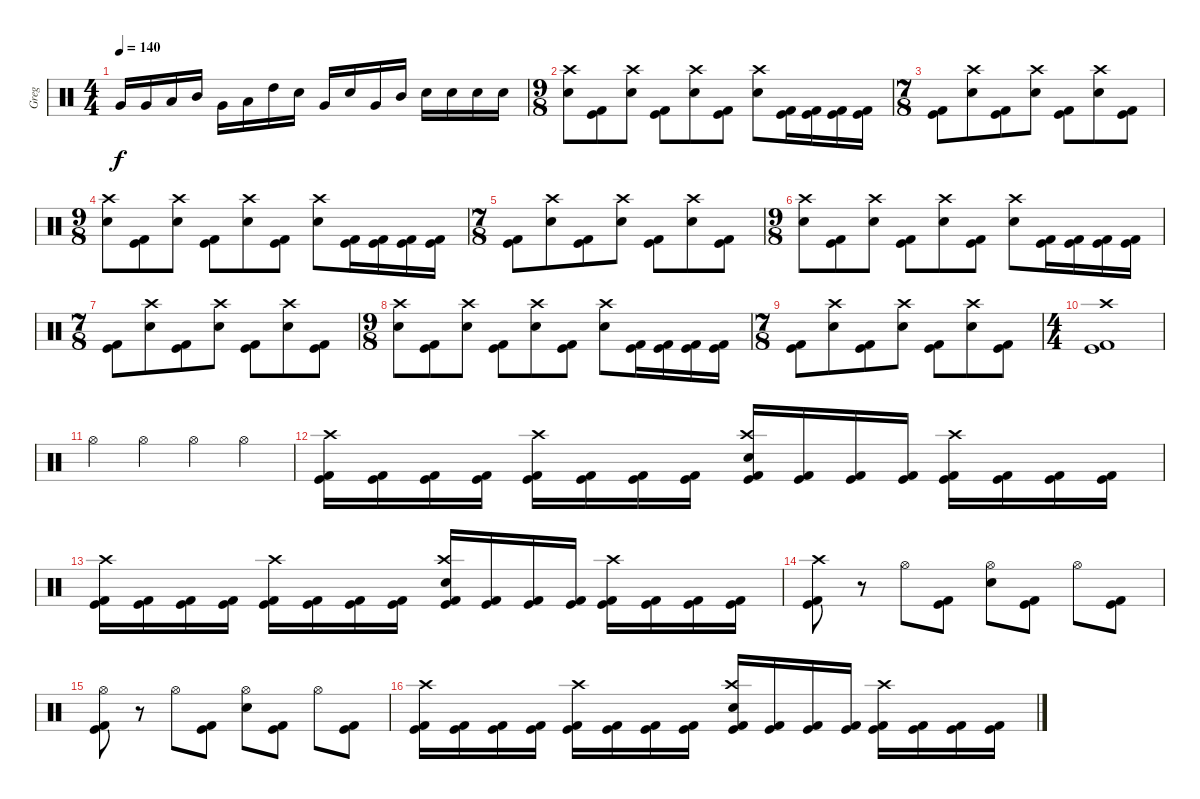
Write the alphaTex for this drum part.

\track ("Greg" "Greg") {instrument percussion}
\staff {score}
\articulation defaults
\ts (4 4)
\tempo 140
\clef neutral
\ks c "Very Low Tom (hit)".16{dy f} "Very Low Tom (hit)".16 "Low Tom (hit)".16 "Mid Tom (hit)".16 "Very Low Tom (hit)".16 "Low Tom (hit)".16 "High Tom (hit)".16 "Snare (hit) 2".16 "Very Low Tom (hit)".16 "Snare (hit) 2".16 "Very Low Tom (hit)".16 "Mid Tom (hit)".16 "Snare (hit) 2".16 "Snare (hit) 2".16 "Snare (hit) 2".16 "Snare (hit) 2".16
|
\ts (9 8)
("Crash high (hit)" "Snare (hit) 2").8 ("Kick (hit)" "Kick (hit) 2").8 ("Crash high (hit)" "Snare (hit) 2").8 ("Kick (hit)" "Kick (hit) 2").8 ("Crash high (hit)" "Snare (hit) 2").8 ("Kick (hit)" "Kick (hit) 2").8 ("Crash high (hit)" "Snare (hit) 2").8 ("Kick (hit)" "Kick (hit) 2").16 ("Kick (hit)" "Kick (hit) 2").16 ("Kick (hit)" "Kick (hit) 2").16 ("Kick (hit)" "Kick (hit) 2").16 |
\ts (7 8)
("Kick (hit)" "Kick (hit) 2").8 ("Crash high (hit)" "Snare (hit) 2").8 ("Kick (hit)" "Kick (hit) 2").8 ("Crash high (hit)" "Snare (hit) 2").8 ("Kick (hit)" "Kick (hit) 2").8 ("Crash high (hit)" "Snare (hit) 2").8 ("Kick (hit)" "Kick (hit) 2").8 |
\ts (9 8)
("Crash high (hit)" "Snare (hit) 2").8 ("Kick (hit)" "Kick (hit) 2").8 ("Crash high (hit)" "Snare (hit) 2").8 ("Kick (hit)" "Kick (hit) 2").8 ("Crash high (hit)" "Snare (hit) 2").8 ("Kick (hit)" "Kick (hit) 2").8 ("Crash high (hit)" "Snare (hit) 2").8 ("Kick (hit)" "Kick (hit) 2").16 ("Kick (hit)" "Kick (hit) 2").16 ("Kick (hit)" "Kick (hit) 2").16 ("Kick (hit)" "Kick (hit) 2").16 |
\ts (7 8)
("Kick (hit)" "Kick (hit) 2").8 ("Crash high (hit)" "Snare (hit) 2").8 ("Kick (hit)" "Kick (hit) 2").8 ("Crash high (hit)" "Snare (hit) 2").8 ("Kick (hit)" "Kick (hit) 2").8 ("Crash high (hit)" "Snare (hit) 2").8 ("Kick (hit)" "Kick (hit) 2").8 |
\ts (9 8)
("Crash high (hit)" "Snare (hit) 2").8 ("Kick (hit)" "Kick (hit) 2").8 ("Crash high (hit)" "Snare (hit) 2").8 ("Kick (hit)" "Kick (hit) 2").8 ("Crash high (hit)" "Snare (hit) 2").8 ("Kick (hit)" "Kick (hit) 2").8 ("Crash high (hit)" "Snare (hit) 2").8 ("Kick (hit)" "Kick (hit) 2").16 ("Kick (hit)" "Kick (hit) 2").16 ("Kick (hit)" "Kick (hit) 2").16 ("Kick (hit)" "Kick (hit) 2").16 |
\ts (7 8)
("Kick (hit)" "Kick (hit) 2").8 ("Crash high (hit)" "Snare (hit) 2").8 ("Kick (hit)" "Kick (hit) 2").8 ("Crash high (hit)" "Snare (hit) 2").8 ("Kick (hit)" "Kick (hit) 2").8 ("Crash high (hit)" "Snare (hit) 2").8 ("Kick (hit)" "Kick (hit) 2").8 |
\ts (9 8)
("Crash high (hit)" "Snare (hit) 2").8 ("Kick (hit)" "Kick (hit) 2").8 ("Crash high (hit)" "Snare (hit) 2").8 ("Kick (hit)" "Kick (hit) 2").8 ("Crash high (hit)" "Snare (hit) 2").8 ("Kick (hit)" "Kick (hit) 2").8 ("Crash high (hit)" "Snare (hit) 2").8 ("Kick (hit)" "Kick (hit) 2").16 ("Kick (hit)" "Kick (hit) 2").16 ("Kick (hit)" "Kick (hit) 2").16 ("Kick (hit)" "Kick (hit) 2").16 |
\ts (7 8)
("Kick (hit)" "Kick (hit) 2").8 ("Crash high (hit)" "Snare (hit) 2").8 ("Kick (hit)" "Kick (hit) 2").8 ("Crash high (hit)" "Snare (hit) 2").8 ("Kick (hit)" "Kick (hit) 2").8 ("Crash high (hit)" "Snare (hit) 2").8 ("Kick (hit)" "Kick (hit) 2").8 |
\ts (4 4)
("Crash high (hit)" "Kick (hit)" "Kick (hit) 2").1 |
"Hi-Hat (open)".4 "Hi-Hat (open)".4 "Hi-Hat (open)".4 "Hi-Hat (open)".4 |
("Crash high (hit)" "Kick (hit)" "Kick (hit) 2").16 ("Kick (hit)" "Kick (hit) 2").16 ("Kick (hit)" "Kick (hit) 2").16 ("Kick (hit)" "Kick (hit) 2").16 ("Crash high (hit)" "Kick (hit)" "Kick (hit) 2").16 ("Kick (hit)" "Kick (hit) 2").16 ("Kick (hit)" "Kick (hit) 2").16 ("Kick (hit)" "Kick (hit) 2").16 ("Crash high (hit)" "Snare (hit) 2" "Kick (hit)" "Kick (hit) 2").16 ("Kick (hit)" "Kick (hit) 2").16 ("Kick (hit)" "Kick (hit) 2").16 ("Kick (hit)" "Kick (hit) 2").16 ("Crash high (hit)" "Kick (hit)" "Kick (hit) 2").16 ("Kick (hit)" "Kick (hit) 2").16 ("Kick (hit)" "Kick (hit) 2").16 ("Kick (hit)" "Kick (hit) 2").16 |
("Crash high (hit)" "Kick (hit)" "Kick (hit) 2").16 ("Kick (hit)" "Kick (hit) 2").16 ("Kick (hit)" "Kick (hit) 2").16 ("Kick (hit)" "Kick (hit) 2").16 ("Crash high (hit)" "Kick (hit)" "Kick (hit) 2").16 ("Kick (hit)" "Kick (hit) 2").16 ("Kick (hit)" "Kick (hit) 2").16 ("Kick (hit)" "Kick (hit) 2").16 ("Crash high (hit)" "Snare (hit) 2" "Kick (hit)" "Kick (hit) 2").16 ("Kick (hit)" "Kick (hit) 2").16 ("Kick (hit)" "Kick (hit) 2").16 ("Kick (hit)" "Kick (hit) 2").16 ("Crash high (hit)" "Kick (hit)" "Kick (hit) 2").16 ("Kick (hit)" "Kick (hit) 2").16 ("Kick (hit)" "Kick (hit) 2").16 ("Kick (hit)" "Kick (hit) 2").16 |
("Crash high (hit)" "Kick (hit)" "Kick (hit) 2").8 r.8 "Hi-Hat (open)".8 ("Kick (hit)" "Kick (hit) 2").8 ("Hi-Hat (open)" "Snare (hit) 2").8 ("Kick (hit)" "Kick (hit) 2").8 "Hi-Hat (open)".8 ("Kick (hit)" "Kick (hit) 2").8 |
("Hi-Hat (open)" "Kick (hit)" "Kick (hit) 2").8 r.8 "Hi-Hat (open)".8 ("Kick (hit)" "Kick (hit) 2").8 ("Hi-Hat (open)" "Snare (hit) 2").8 ("Kick (hit)" "Kick (hit) 2").8 "Hi-Hat (open)".8 ("Kick (hit)" "Kick (hit) 2").8 |
("Crash high (hit)" "Kick (hit)" "Kick (hit) 2").16 ("Kick (hit)" "Kick (hit) 2").16 ("Kick (hit)" "Kick (hit) 2").16 ("Kick (hit)" "Kick (hit) 2").16 ("Crash high (hit)" "Kick (hit)" "Kick (hit) 2").16 ("Kick (hit)" "Kick (hit) 2").16 ("Kick (hit)" "Kick (hit) 2").16 ("Kick (hit)" "Kick (hit) 2").16 ("Crash high (hit)" "Snare (hit) 2" "Kick (hit)" "Kick (hit) 2").16 ("Kick (hit)" "Kick (hit) 2").16 ("Kick (hit)" "Kick (hit) 2").16 ("Kick (hit)" "Kick (hit) 2").16 ("Crash high (hit)" "Kick (hit)" "Kick (hit) 2").16 ("Kick (hit)" "Kick (hit) 2").16 ("Kick (hit)" "Kick (hit) 2").16 ("Kick (hit)" "Kick (hit) 2").16
